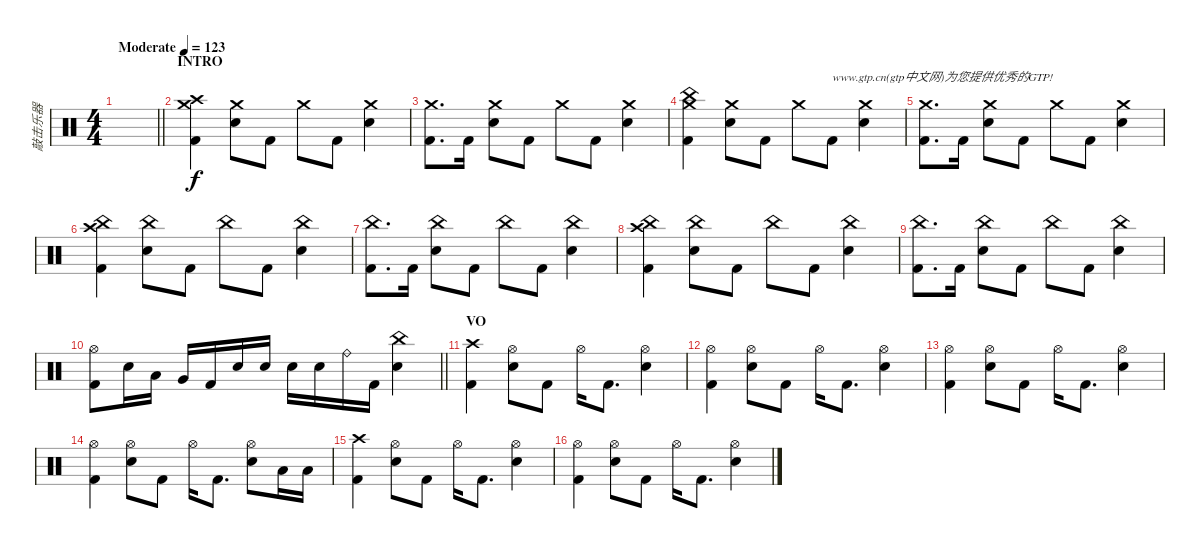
\track ("敲击乐器" "敲击乐器") {instrument percussion}
\staff {score}
\articulation defaults
\ts (4 4)
\tempo (123 "Moderate")
\clef neutral
\barLineRight lightlight
\ks c
|
\section ("" "INTRO")
("Crash high (hit)" "Crash medium (hit)" "Kick (hit) 2").4 ("Crash medium (hit)" "Electric Snare (hit)").8 "Kick (hit) 2".8 "Crash medium (hit)".8 "Kick (hit) 2".8 ("Crash medium (hit)" "Electric Snare (hit)").4 |
("Crash medium (hit)" "Kick (hit) 2").8{d} "Kick (hit) 2".16 ("Crash medium (hit)" "Electric Snare (hit)").8 "Kick (hit) 2".8 "Crash medium (hit)".8 "Kick (hit) 2".8 ("Crash medium (hit)" "Electric Snare (hit)").4 |
("China (hit)" "Crash medium (hit)" "Kick (hit) 2").4 ("Crash medium (hit)" "Electric Snare (hit)").8 "Kick (hit) 2".8 "Crash medium (hit)".8 "Kick (hit) 2".8{txt "www.gtp.cn(gtp中文网)为您提供优秀的GTP!"} ("Crash medium (hit)" "Electric Snare (hit)").4 |
("Crash medium (hit)" "Kick (hit) 2").8{d} "Kick (hit) 2".16 ("Crash medium (hit)" "Electric Snare (hit)").8 "Kick (hit) 2".8 "Crash medium (hit)".8 "Kick (hit) 2".8 ("Crash medium (hit)" "Electric Snare (hit)").4 |
("Crash high (hit)" "China (hit)" "Kick (hit) 2").4 ("China (hit)" "Electric Snare (hit)").8 "Kick (hit) 2".8 "China (hit)".8 "Kick (hit) 2".8 ("China (hit)" "Electric Snare (hit)").4 |
("China (hit)" "Kick (hit) 2").8{d} "Kick (hit) 2".16 ("China (hit)" "Electric Snare (hit)").8 "Kick (hit) 2".8 "China (hit)".8 "Kick (hit) 2".8 ("China (hit)" "Electric Snare (hit)").4 |
("Crash high (hit)" "China (hit)" "Kick (hit) 2").4 ("China (hit)" "Electric Snare (hit)").8 "Kick (hit) 2".8 "China (hit)".8 "Kick (hit) 2".8 ("China (hit)" "Electric Snare (hit)").4 |
("China (hit)" "Kick (hit) 2").8{d} "Kick (hit) 2".16 ("China (hit)" "Electric Snare (hit)").8 "Kick (hit) 2".8 "China (hit)".8 "Kick (hit) 2".8 ("China (hit)" "Electric Snare (hit)").4 |
\barLineRight lightlight
("Hi-Hat (open)" "Kick (hit) 2").8 "Electric Snare (hit)".16 "Low Tom (hit)".16 "Very Low Tom (hit)".16 "Kick (hit) 2".16 "Electric Snare (hit)".16 "Electric Snare (hit)".16 "Electric Snare (hit)".16 "Electric Snare (hit)".16 "Ride (bell)".16 "Kick (hit) 2".16 ("China (hit)" "Electric Snare (hit)").4 |
\section ("" "VO")
("Crash high (hit)" "Kick (hit) 2").4 ("Hi-Hat (open)" "Electric Snare (hit)").8 "Kick (hit) 2".8 "Hi-Hat (open)".16 "Kick (hit) 2".8{d} ("Hi-Hat (open)" "Electric Snare (hit)").4 |
("Hi-Hat (open)" "Kick (hit) 2").4 ("Hi-Hat (open)" "Electric Snare (hit)").8 "Kick (hit) 2".8 "Hi-Hat (open)".16 "Kick (hit) 2".8{d} ("Hi-Hat (open)" "Electric Snare (hit)").4 |
("Hi-Hat (open)" "Kick (hit) 2").4 ("Hi-Hat (open)" "Electric Snare (hit)").8 "Kick (hit) 2".8 "Hi-Hat (open)".16 "Kick (hit) 2".8{d} ("Hi-Hat (open)" "Electric Snare (hit)").4 |
("Hi-Hat (open)" "Kick (hit) 2").4 ("Hi-Hat (open)" "Electric Snare (hit)").8 "Kick (hit) 2".8 "Hi-Hat (open)".16 "Kick (hit) 2".8{d} ("Hi-Hat (open)" "Electric Snare (hit)").8 "Low Tom (hit)".16 "Low Tom (hit)".16 |
("Crash high (hit)" "Kick (hit) 2").4 ("Hi-Hat (open)" "Electric Snare (hit)").8 "Kick (hit) 2".8 "Hi-Hat (open)".16 "Kick (hit) 2".8{d} ("Hi-Hat (open)" "Electric Snare (hit)").4 |
("Hi-Hat (open)" "Kick (hit) 2").4 ("Hi-Hat (open)" "Electric Snare (hit)").8 "Kick (hit) 2".8 "Hi-Hat (open)".16 "Kick (hit) 2".8{d} ("Hi-Hat (open)" "Electric Snare (hit)").4
